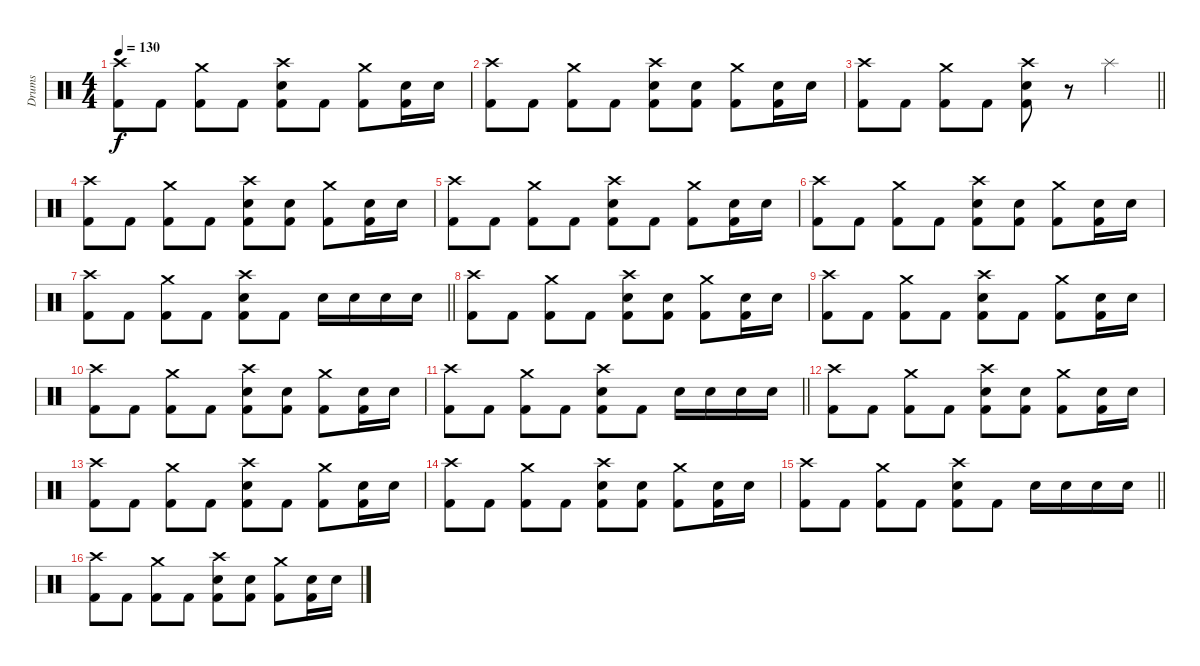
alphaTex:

\track ("Drums" "Drums") {instrument percussion}
\staff {score}
\articulation defaults
\ts (4 4)
\tempo 130
\clef neutral
\ks c
("Crash high (hit)" "Kick (hit) 2").8{dy f} "Kick (hit) 2".8 ("Crash medium (hit)" "Kick (hit) 2").8 "Kick (hit) 2".8 ("Crash high (hit)" "Electric Snare (hit)" "Kick (hit) 2").8 "Kick (hit) 2".8 ("Crash medium (hit)" "Kick (hit) 2").8 ("Electric Snare (hit)" "Kick (hit) 2").16 "Electric Snare (hit)".16 |
("Crash high (hit)" "Kick (hit) 2").8 "Kick (hit) 2".8 ("Crash medium (hit)" "Kick (hit) 2").8 "Kick (hit) 2".8 ("Crash high (hit)" "Electric Snare (hit)" "Kick (hit) 2").8 ("Electric Snare (hit)" "Kick (hit) 2").8 ("Crash medium (hit)" "Kick (hit) 2").8 ("Electric Snare (hit)" "Kick (hit) 2").16 "Electric Snare (hit)".16 |
\barLineRight lightlight
("Crash high (hit)" "Kick (hit) 2").8 "Kick (hit) 2".8 ("Crash medium (hit)" "Kick (hit) 2").8 "Kick (hit) 2".8 ("Crash high (hit)" "Electric Snare (hit)" "Kick (hit) 2").8 r.8 "Splash (hit)".4 |
("Crash high (hit)" "Kick (hit) 2").8 "Kick (hit) 2".8 ("Crash medium (hit)" "Kick (hit) 2").8 "Kick (hit) 2".8 ("Crash high (hit)" "Electric Snare (hit)" "Kick (hit) 2").8 ("Electric Snare (hit)" "Kick (hit) 2").8 ("Crash medium (hit)" "Kick (hit) 2").8 ("Electric Snare (hit)" "Kick (hit) 2").16 "Electric Snare (hit)".16 |
("Crash high (hit)" "Kick (hit) 2").8 "Kick (hit) 2".8 ("Crash medium (hit)" "Kick (hit) 2").8 "Kick (hit) 2".8 ("Crash high (hit)" "Electric Snare (hit)" "Kick (hit) 2").8 "Kick (hit) 2".8 ("Crash medium (hit)" "Kick (hit) 2").8 ("Electric Snare (hit)" "Kick (hit) 2").16 "Electric Snare (hit)".16 |
("Crash high (hit)" "Kick (hit) 2").8 "Kick (hit) 2".8 ("Crash medium (hit)" "Kick (hit) 2").8 "Kick (hit) 2".8 ("Crash high (hit)" "Electric Snare (hit)" "Kick (hit) 2").8 ("Electric Snare (hit)" "Kick (hit) 2").8 ("Crash medium (hit)" "Kick (hit) 2").8 ("Electric Snare (hit)" "Kick (hit) 2").16 "Electric Snare (hit)".16 |
\barLineRight lightlight
("Crash high (hit)" "Kick (hit) 2").8 "Kick (hit) 2".8 ("Crash medium (hit)" "Kick (hit) 2").8 "Kick (hit) 2".8 ("Crash high (hit)" "Electric Snare (hit)" "Kick (hit) 2").8 "Kick (hit) 2".8 "Electric Snare (hit)".16 "Electric Snare (hit)".16 "Electric Snare (hit)".16 "Electric Snare (hit)".16 |
("Crash high (hit)" "Kick (hit) 2").8 "Kick (hit) 2".8 ("Crash medium (hit)" "Kick (hit) 2").8 "Kick (hit) 2".8 ("Crash high (hit)" "Electric Snare (hit)" "Kick (hit) 2").8 ("Electric Snare (hit)" "Kick (hit) 2").8 ("Crash medium (hit)" "Kick (hit) 2").8 ("Electric Snare (hit)" "Kick (hit) 2").16 "Electric Snare (hit)".16 |
("Crash high (hit)" "Kick (hit) 2").8 "Kick (hit) 2".8 ("Crash medium (hit)" "Kick (hit) 2").8 "Kick (hit) 2".8 ("Crash high (hit)" "Electric Snare (hit)" "Kick (hit) 2").8 "Kick (hit) 2".8 ("Crash medium (hit)" "Kick (hit) 2").8 ("Electric Snare (hit)" "Kick (hit) 2").16 "Electric Snare (hit)".16 |
("Crash high (hit)" "Kick (hit) 2").8 "Kick (hit) 2".8 ("Crash medium (hit)" "Kick (hit) 2").8 "Kick (hit) 2".8 ("Crash high (hit)" "Electric Snare (hit)" "Kick (hit) 2").8 ("Electric Snare (hit)" "Kick (hit) 2").8 ("Crash medium (hit)" "Kick (hit) 2").8 ("Electric Snare (hit)" "Kick (hit) 2").16 "Electric Snare (hit)".16 |
\barLineRight lightlight
("Crash high (hit)" "Kick (hit) 2").8 "Kick (hit) 2".8 ("Crash medium (hit)" "Kick (hit) 2").8 "Kick (hit) 2".8 ("Crash high (hit)" "Electric Snare (hit)" "Kick (hit) 2").8 "Kick (hit) 2".8 "Electric Snare (hit)".16 "Electric Snare (hit)".16 "Electric Snare (hit)".16 "Electric Snare (hit)".16 |
("Crash high (hit)" "Kick (hit) 2").8 "Kick (hit) 2".8 ("Crash medium (hit)" "Kick (hit) 2").8 "Kick (hit) 2".8 ("Crash high (hit)" "Electric Snare (hit)" "Kick (hit) 2").8 ("Electric Snare (hit)" "Kick (hit) 2").8 ("Crash medium (hit)" "Kick (hit) 2").8 ("Electric Snare (hit)" "Kick (hit) 2").16 "Electric Snare (hit)".16 |
("Crash high (hit)" "Kick (hit) 2").8 "Kick (hit) 2".8 ("Crash medium (hit)" "Kick (hit) 2").8 "Kick (hit) 2".8 ("Crash high (hit)" "Electric Snare (hit)" "Kick (hit) 2").8 "Kick (hit) 2".8 ("Crash medium (hit)" "Kick (hit) 2").8 ("Electric Snare (hit)" "Kick (hit) 2").16 "Electric Snare (hit)".16 |
("Crash high (hit)" "Kick (hit) 2").8 "Kick (hit) 2".8 ("Crash medium (hit)" "Kick (hit) 2").8 "Kick (hit) 2".8 ("Crash high (hit)" "Electric Snare (hit)" "Kick (hit) 2").8 ("Electric Snare (hit)" "Kick (hit) 2").8 ("Crash medium (hit)" "Kick (hit) 2").8 ("Electric Snare (hit)" "Kick (hit) 2").16 "Electric Snare (hit)".16 |
\barLineRight lightlight
("Crash high (hit)" "Kick (hit) 2").8 "Kick (hit) 2".8 ("Crash medium (hit)" "Kick (hit) 2").8 "Kick (hit) 2".8 ("Crash high (hit)" "Electric Snare (hit)" "Kick (hit) 2").8 "Kick (hit) 2".8 "Electric Snare (hit)".16 "Electric Snare (hit)".16 "Electric Snare (hit)".16 "Electric Snare (hit)".16 |
("Crash high (hit)" "Kick (hit) 2").8 "Kick (hit) 2".8 ("Crash medium (hit)" "Kick (hit) 2").8 "Kick (hit) 2".8 ("Crash high (hit)" "Electric Snare (hit)" "Kick (hit) 2").8 ("Electric Snare (hit)" "Kick (hit) 2").8 ("Crash medium (hit)" "Kick (hit) 2").8 ("Electric Snare (hit)" "Kick (hit) 2").16 "Electric Snare (hit)".16
